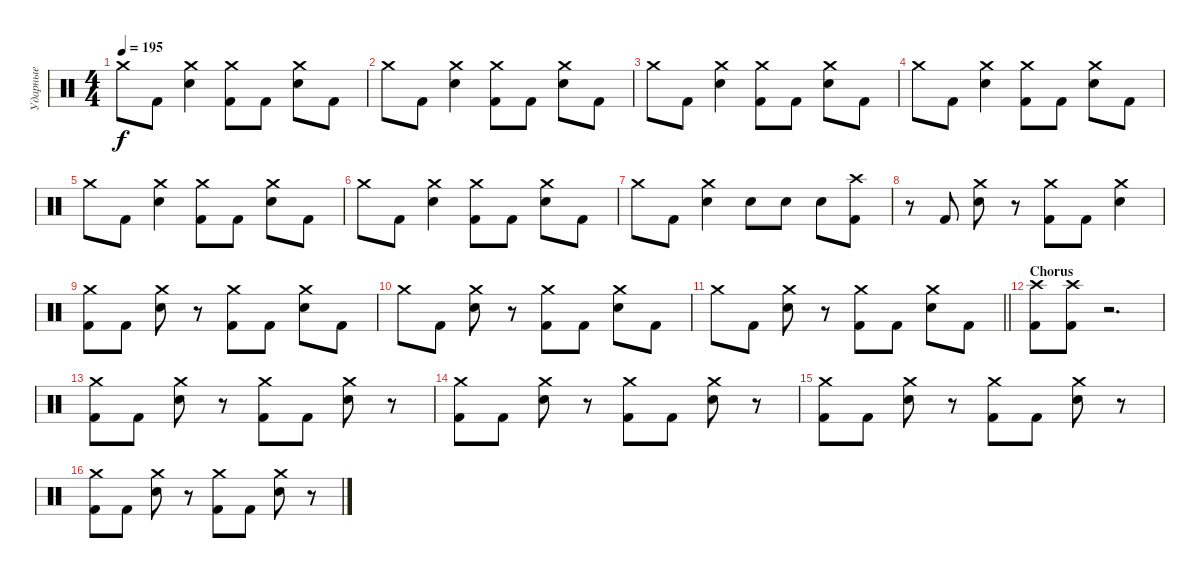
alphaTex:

\track ("Ударные" "Ударные") {instrument percussion}
\staff {score}
\articulation defaults
\ts (4 4)
\tempo 195
\clef neutral
\ks c "Crash medium (hit)".8{dy f} "Kick (hit) 2".8
("Crash medium (hit)" "Electric Snare (hit)").4 ("Crash medium (hit)" "Kick (hit) 2").8 "Kick (hit) 2".8 ("Crash medium (hit)" "Electric Snare (hit)").8 "Kick (hit) 2".8 |
"Crash medium (hit)".8 "Kick (hit) 2".8 ("Crash medium (hit)" "Electric Snare (hit)").4 ("Crash medium (hit)" "Kick (hit) 2").8 "Kick (hit) 2".8 ("Crash medium (hit)" "Electric Snare (hit)").8 "Kick (hit) 2".8 |
"Crash medium (hit)".8 "Kick (hit) 2".8 ("Crash medium (hit)" "Electric Snare (hit)").4 ("Crash medium (hit)" "Kick (hit) 2").8 "Kick (hit) 2".8 ("Crash medium (hit)" "Electric Snare (hit)").8 "Kick (hit) 2".8 |
"Crash medium (hit)".8 "Kick (hit) 2".8 ("Crash medium (hit)" "Electric Snare (hit)").4 ("Crash medium (hit)" "Kick (hit) 2").8 "Kick (hit) 2".8 ("Crash medium (hit)" "Electric Snare (hit)").8 "Kick (hit) 2".8 |
"Crash medium (hit)".8 "Kick (hit) 2".8 ("Crash medium (hit)" "Electric Snare (hit)").4 ("Crash medium (hit)" "Kick (hit) 2").8 "Kick (hit) 2".8 ("Crash medium (hit)" "Electric Snare (hit)").8 "Kick (hit) 2".8 |
"Crash medium (hit)".8 "Kick (hit) 2".8 ("Crash medium (hit)" "Electric Snare (hit)").4 ("Crash medium (hit)" "Kick (hit) 2").8 "Kick (hit) 2".8 ("Crash medium (hit)" "Electric Snare (hit)").8 "Kick (hit) 2".8 |
"Crash medium (hit)".8 "Kick (hit) 2".8 ("Crash medium (hit)" "Electric Snare (hit)").4 "Electric Snare (hit)".8 "Electric Snare (hit)".8 "Electric Snare (hit)".8 ("Crash high (hit)" "Kick (hit) 2").8 |
r.8 "Kick (hit) 2".8 ("Crash medium (hit)" "Electric Snare (hit)").8 r.8 ("Crash medium (hit)" "Kick (hit) 2").8 "Kick (hit) 2".8 ("Crash medium (hit)" "Electric Snare (hit)").4 |
("Crash medium (hit)" "Kick (hit) 2").8 "Kick (hit) 2".8 ("Crash medium (hit)" "Electric Snare (hit)").8 r.8 ("Crash medium (hit)" "Kick (hit) 2").8 "Kick (hit) 2".8 ("Crash medium (hit)" "Electric Snare (hit)").8 "Kick (hit) 2".8 |
"Crash medium (hit)".8 "Kick (hit) 2".8 ("Crash medium (hit)" "Electric Snare (hit)").8 r.8 ("Crash medium (hit)" "Kick (hit) 2").8 "Kick (hit) 2".8 ("Crash medium (hit)" "Electric Snare (hit)").8 "Kick (hit) 2".8 |
\barLineRight lightlight "Crash medium (hit)".8 "Kick (hit) 2".8
("Crash medium (hit)" "Electric Snare (hit)").8 r.8 ("Crash medium (hit)" "Kick (hit) 2").8 "Kick (hit) 2".8 ("Crash medium (hit)" "Electric Snare (hit)").8 "Kick (hit) 2".8 |
\section ("" "Chorus")
("Crash high (hit)" "Kick (hit) 2").8 ("Crash high (hit)" "Kick (hit) 2").8 r.2{d} |
("Crash medium (hit)" "Kick (hit) 2").8 "Kick (hit) 2".8 ("Crash medium (hit)" "Electric Snare (hit)").8 r.8 ("Crash medium (hit)" "Kick (hit) 2").8 "Kick (hit) 2".8 ("Crash medium (hit)" "Electric Snare (hit)").8 r.8 |
("Crash medium (hit)" "Kick (hit) 2").8 "Kick (hit) 2".8 ("Crash medium (hit)" "Electric Snare (hit)").8 r.8 ("Crash medium (hit)" "Kick (hit) 2").8 "Kick (hit) 2".8 ("Crash medium (hit)" "Electric Snare (hit)").8 r.8 |
("Crash medium (hit)" "Kick (hit) 2").8 "Kick (hit) 2".8 ("Crash medium (hit)" "Electric Snare (hit)").8 r.8 ("Crash medium (hit)" "Kick (hit) 2").8 "Kick (hit) 2".8 ("Crash medium (hit)" "Electric Snare (hit)").8 r.8 |
("Crash medium (hit)" "Kick (hit) 2").8 "Kick (hit) 2".8 ("Crash medium (hit)" "Electric Snare (hit)").8 r.8 ("Crash medium (hit)" "Kick (hit) 2").8 "Kick (hit) 2".8 ("Crash medium (hit)" "Electric Snare (hit)").8 r.8
